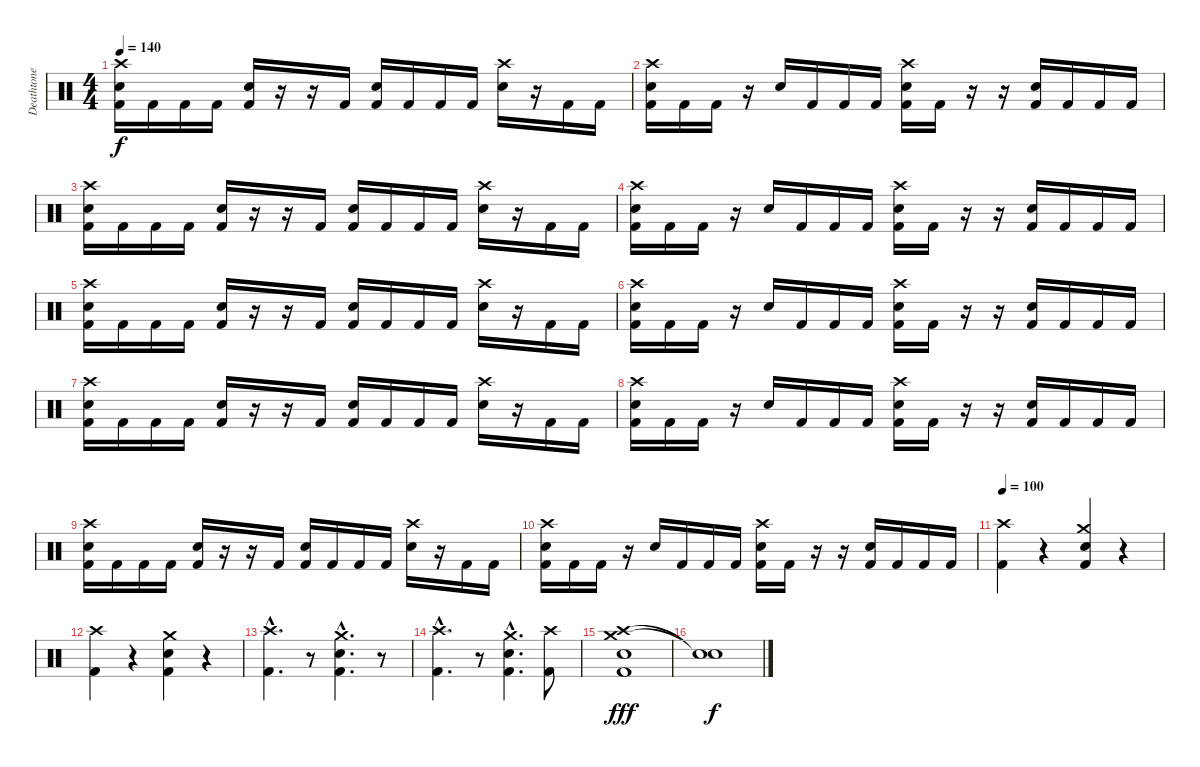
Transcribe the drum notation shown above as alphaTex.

\track ("Deathtone" "Deathtone") {instrument percussion}
\staff {score}
\articulation defaults
\ts (4 4)
\tempo 140
\clef neutral
\ks c
("Crash high (hit)" "Snare (hit) 2" "Kick (hit) 2").16{dy f} "Kick (hit) 2".16 "Kick (hit) 2".16 "Kick (hit) 2".16 ("Snare (hit) 2" "Kick (hit) 2").16 r.16 r.16 "Kick (hit) 2".16 ("Snare (hit) 2" "Kick (hit) 2").16 "Kick (hit) 2".16 "Kick (hit) 2".16 "Kick (hit) 2".16 ("Crash high (hit)" "Snare (hit) 2").16 r.16 "Kick (hit) 2".16 "Kick (hit) 2".16 |
("Crash high (hit)" "Snare (hit) 2" "Kick (hit) 2").16 "Kick (hit) 2".16 "Kick (hit) 2".16 r.16 "Snare (hit) 2".16 "Kick (hit) 2".16 "Kick (hit) 2".16 "Kick (hit) 2".16 ("Crash high (hit)" "Snare (hit) 2" "Kick (hit) 2").16 "Kick (hit) 2".16 r.16 r.16 ("Snare (hit) 2" "Kick (hit) 2").16 "Kick (hit) 2".16 "Kick (hit) 2".16 "Kick (hit) 2".16 |
("Crash high (hit)" "Snare (hit) 2" "Kick (hit) 2").16 "Kick (hit) 2".16 "Kick (hit) 2".16 "Kick (hit) 2".16 ("Snare (hit) 2" "Kick (hit) 2").16 r.16 r.16 "Kick (hit) 2".16 ("Snare (hit) 2" "Kick (hit) 2").16 "Kick (hit) 2".16 "Kick (hit) 2".16 "Kick (hit) 2".16 ("Crash high (hit)" "Snare (hit) 2").16 r.16 "Kick (hit) 2".16 "Kick (hit) 2".16 |
("Crash high (hit)" "Snare (hit) 2" "Kick (hit) 2").16 "Kick (hit) 2".16 "Kick (hit) 2".16 r.16 "Snare (hit) 2".16 "Kick (hit) 2".16 "Kick (hit) 2".16 "Kick (hit) 2".16 ("Crash high (hit)" "Snare (hit) 2" "Kick (hit) 2").16 "Kick (hit) 2".16 r.16 r.16 ("Snare (hit) 2" "Kick (hit) 2").16 "Kick (hit) 2".16 "Kick (hit) 2".16 "Kick (hit) 2".16 |
("Crash high (hit)" "Snare (hit) 2" "Kick (hit) 2").16 "Kick (hit) 2".16 "Kick (hit) 2".16 "Kick (hit) 2".16 ("Snare (hit) 2" "Kick (hit) 2").16 r.16 r.16 "Kick (hit) 2".16 ("Snare (hit) 2" "Kick (hit) 2").16 "Kick (hit) 2".16 "Kick (hit) 2".16 "Kick (hit) 2".16 ("Crash high (hit)" "Snare (hit) 2").16 r.16 "Kick (hit) 2".16 "Kick (hit) 2".16 |
("Crash high (hit)" "Snare (hit) 2" "Kick (hit) 2").16 "Kick (hit) 2".16 "Kick (hit) 2".16 r.16 "Snare (hit) 2".16 "Kick (hit) 2".16 "Kick (hit) 2".16 "Kick (hit) 2".16 ("Crash high (hit)" "Snare (hit) 2" "Kick (hit) 2").16 "Kick (hit) 2".16 r.16 r.16 ("Snare (hit) 2" "Kick (hit) 2").16 "Kick (hit) 2".16 "Kick (hit) 2".16 "Kick (hit) 2".16 |
("Crash high (hit)" "Snare (hit) 2" "Kick (hit) 2").16 "Kick (hit) 2".16 "Kick (hit) 2".16 "Kick (hit) 2".16 ("Snare (hit) 2" "Kick (hit) 2").16 r.16 r.16 "Kick (hit) 2".16 ("Snare (hit) 2" "Kick (hit) 2").16 "Kick (hit) 2".16 "Kick (hit) 2".16 "Kick (hit) 2".16 ("Crash high (hit)" "Snare (hit) 2").16 r.16 "Kick (hit) 2".16 "Kick (hit) 2".16 |
("Crash high (hit)" "Snare (hit) 2" "Kick (hit) 2").16 "Kick (hit) 2".16 "Kick (hit) 2".16 r.16 "Snare (hit) 2".16 "Kick (hit) 2".16 "Kick (hit) 2".16 "Kick (hit) 2".16 ("Crash high (hit)" "Snare (hit) 2" "Kick (hit) 2").16 "Kick (hit) 2".16 r.16 r.16 ("Snare (hit) 2" "Kick (hit) 2").16 "Kick (hit) 2".16 "Kick (hit) 2".16 "Kick (hit) 2".16 |
("Crash high (hit)" "Snare (hit) 2" "Kick (hit) 2").16 "Kick (hit) 2".16 "Kick (hit) 2".16 "Kick (hit) 2".16 ("Snare (hit) 2" "Kick (hit) 2").16 r.16 r.16 "Kick (hit) 2".16 ("Snare (hit) 2" "Kick (hit) 2").16 "Kick (hit) 2".16 "Kick (hit) 2".16 "Kick (hit) 2".16 ("Crash high (hit)" "Snare (hit) 2").16 r.16 "Kick (hit) 2".16 "Kick (hit) 2".16 |
("Crash high (hit)" "Snare (hit) 2" "Kick (hit) 2").16 "Kick (hit) 2".16 "Kick (hit) 2".16 r.16 "Snare (hit) 2".16 "Kick (hit) 2".16 "Kick (hit) 2".16 "Kick (hit) 2".16 ("Crash high (hit)" "Snare (hit) 2" "Kick (hit) 2").16 "Kick (hit) 2".16 r.16 r.16 ("Snare (hit) 2" "Kick (hit) 2").16 "Kick (hit) 2".16 "Kick (hit) 2".16 "Kick (hit) 2".16 |
\tempo 100
("Crash high (hit)" "Kick (hit) 2").4 r.4 ("Crash medium (hit)" "Electric Snare (hit)" "Kick (hit) 2").4 r.4 |
("Crash high (hit)" "Kick (hit) 2").4 r.4 ("Crash medium (hit)" "Snare (hit) 2" "Kick (hit) 2").4 r.4 |
("Crash high (hit)"{hac} "Kick (hit) 2"{hac}).4{d} r.8 ("Crash medium (hit)"{hac} "Snare (hit) 2"{hac} "Kick (hit) 2"{hac}).4{d} r.8 |
("Crash high (hit)"{hac} "Kick (hit) 2"{hac}).4{d} r.8 ("Crash medium (hit)"{hac} "Snare (hit) 2"{hac} "Kick (hit) 2"{hac}).4{d} ("Crash high (hit)" "Kick (hit) 2").8 |
("Crash high (hit)" "Crash medium (hit)" "Snare (hit) 2" "Kick (hit) 2").1{dy fff} |
("Snare (hit)"{t} "Snare (hit)"{t}).1{dy f}
